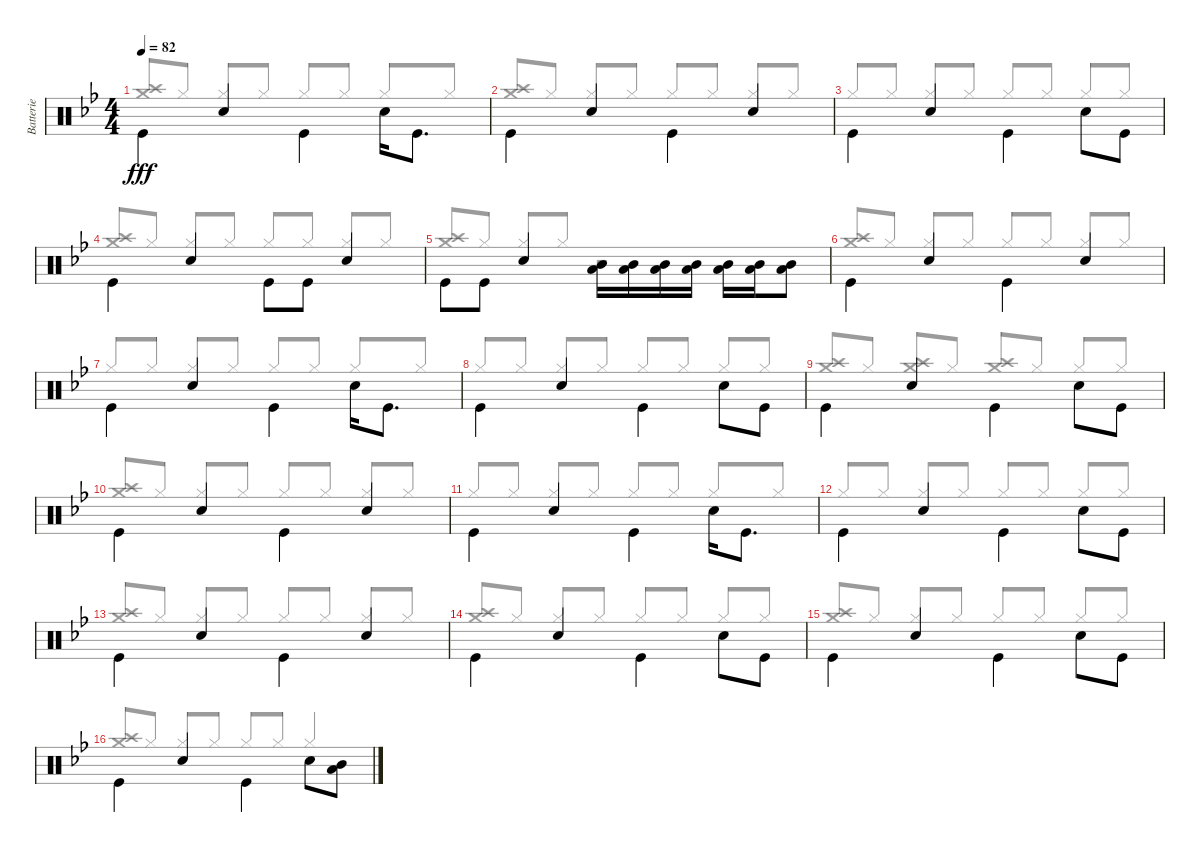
\track ("Batterie" "Batterie") {instrument percussion}
\staff {score}
\articulation defaults
\voice
\ts (4 4)
\tempo 82
\clef neutral
\ks bb "Kick (hit)".4{dy fff beam Down} "Snare (hit) 2".4 "Kick (hit)".4{beam Down} "Snare (hit) 2".16{beam Down} "Kick (hit)".8{d beam Down}
|
"Kick (hit)".4{beam Down} "Snare (hit) 2".4 "Kick (hit)".4{beam Down} "Snare (hit) 2".4 |
"Kick (hit)".4{beam Down} "Snare (hit) 2".4 "Kick (hit)".4{beam Down} "Snare (hit) 2".8{beam Down} "Kick (hit)".8{beam Down} |
"Kick (hit)".4{beam Down} "Snare (hit) 2".4 "Kick (hit)".8{beam Down} "Kick (hit)".8{beam Down} "Snare (hit) 2".4 |
"Kick (hit)".8{beam Down} "Kick (hit)".8{beam Down} "Snare (hit) 2".4 ("Mid Tom (hit)" "Low Tom (hit)").16{beam Down} ("Mid Tom (hit)" "Low Tom (hit)").16{beam Down} ("Mid Tom (hit)" "Low Tom (hit)").16{beam Down} ("Mid Tom (hit)" "Low Tom (hit)").16{beam Down} ("Mid Tom (hit)" "Low Tom (hit)").16{beam Down} ("Mid Tom (hit)" "Low Tom (hit)").16{beam Down} ("Mid Tom (hit)" "Low Tom (hit)").8{beam Down} |
"Kick (hit)".4{beam Down} "Snare (hit) 2".4 "Kick (hit)".4{beam Down} "Snare (hit) 2".4 |
"Kick (hit)".4{beam Down} "Snare (hit) 2".4 "Kick (hit)".4{beam Down} "Snare (hit) 2".16{beam Down} "Kick (hit)".8{d beam Down} |
"Kick (hit)".4{beam Down} "Snare (hit) 2".4 "Kick (hit)".4{beam Down} "Snare (hit) 2".8{beam Down} "Kick (hit)".8{beam Down} |
"Kick (hit)".4{beam Down} "Snare (hit) 2".4 "Kick (hit)".4{beam Down} "Snare (hit) 2".8{beam Down} "Kick (hit)".8{beam Down} |
"Kick (hit)".4{beam Down} "Snare (hit) 2".4 "Kick (hit)".4{beam Down} "Snare (hit) 2".4 |
"Kick (hit)".4{beam Down} "Snare (hit) 2".4 "Kick (hit)".4{beam Down} "Snare (hit) 2".16{beam Down} "Kick (hit)".8{d beam Down} |
"Kick (hit)".4{beam Down} "Snare (hit) 2".4 "Kick (hit)".4{beam Down} "Snare (hit) 2".8{beam Down} "Kick (hit)".8{beam Down} |
"Kick (hit)".4{beam Down} "Snare (hit) 2".4 "Kick (hit)".4{beam Down} "Snare (hit) 2".4 |
"Kick (hit)".4{beam Down} "Snare (hit) 2".4 "Kick (hit)".4{beam Down} "Snare (hit) 2".8{beam Down} "Kick (hit)".8{beam Down} |
"Kick (hit)".4{beam Down} "Snare (hit) 2".4 "Kick (hit)".4{beam Down} "Snare (hit) 2".8{beam Down} "Kick (hit)".8{beam Down} |
"Kick (hit)".4{beam Down} "Snare (hit) 2".4 "Kick (hit)".4{beam Down} "Snare (hit) 2".8{beam Down} ("Mid Tom (hit)" "Low Tom (hit)").8{beam Down}
\voice
\clef neutral
\ottava regular
\simile none
\ks bb
("Crash medium (hit)" "Crash high (hit)").8{dy fff beam Up} "Hi-Hat (closed)".8{beam Up} "Hi-Hat (closed)".8{beam Up} "Hi-Hat (closed)".8{beam Up} "Hi-Hat (closed)".8{beam Up} "Hi-Hat (closed)".8{beam Up} "Hi-Hat (closed)".8{beam Up} "Hi-Hat (closed)".8{beam Up} |
("Crash medium (hit)" "Crash high (hit)").8{beam Up} "Hi-Hat (closed)".8{beam Up} "Hi-Hat (closed)".8{beam Up} "Hi-Hat (closed)".8{beam Up} "Hi-Hat (closed)".8{beam Up} "Hi-Hat (closed)".8{beam Up} "Hi-Hat (closed)".8{beam Up} "Hi-Hat (closed)".8{beam Up} |
"Hi-Hat (closed)".8{beam Up} "Hi-Hat (closed)".8{beam Up} "Hi-Hat (closed)".8{beam Up} "Hi-Hat (closed)".8{beam Up} "Hi-Hat (closed)".8{beam Up} "Hi-Hat (closed)".8{beam Up} "Hi-Hat (closed)".8{beam Up} "Hi-Hat (closed)".8{beam Up} |
("Crash medium (hit)" "Crash high (hit)").8{beam Up} "Hi-Hat (closed)".8{beam Up} "Hi-Hat (closed)".8{beam Up} "Hi-Hat (closed)".8{beam Up} "Hi-Hat (closed)".8{beam Up} "Hi-Hat (closed)".8{beam Up} "Hi-Hat (closed)".8{beam Up} "Hi-Hat (closed)".8{beam Up} |
("Crash medium (hit)" "Crash high (hit)").8{beam Up} "Hi-Hat (closed)".8{beam Up} "Hi-Hat (closed)".8{beam Up} "Hi-Hat (closed)".8{beam Up} r.2 |
("Crash medium (hit)" "Crash high (hit)").8{beam Up} "Hi-Hat (closed)".8{beam Up} "Hi-Hat (closed)".8{beam Up} "Hi-Hat (closed)".8{beam Up} "Hi-Hat (closed)".8{beam Up} "Hi-Hat (closed)".8{beam Up} "Hi-Hat (closed)".8{beam Up} "Hi-Hat (closed)".8{beam Up} |
"Hi-Hat (closed)".8{beam Up} "Hi-Hat (closed)".8{beam Up} "Hi-Hat (closed)".8{beam Up} "Hi-Hat (closed)".8{beam Up} "Hi-Hat (closed)".8{beam Up} "Hi-Hat (closed)".8{beam Up} "Hi-Hat (closed)".8{beam Up} "Hi-Hat (closed)".8{beam Up} |
"Hi-Hat (closed)".8{beam Up} "Hi-Hat (closed)".8{beam Up} "Hi-Hat (closed)".8{beam Up} "Hi-Hat (closed)".8{beam Up} "Hi-Hat (closed)".8{beam Up} "Hi-Hat (closed)".8{beam Up} "Hi-Hat (closed)".8{beam Up} "Hi-Hat (closed)".8{beam Up} |
("Crash medium (hit)" "Crash high (hit)").8{beam Up} "Hi-Hat (closed)".8{beam Up} ("Crash medium (hit)" "Crash high (hit)").8{beam Up} "Hi-Hat (closed)".8{beam Up} ("Crash medium (hit)" "Crash high (hit)").8{beam Up} "Hi-Hat (closed)".8{beam Up} "Hi-Hat (closed)".8{beam Up} "Hi-Hat (closed)".8{beam Up} |
("Crash medium (hit)" "Crash high (hit)").8{beam Up} "Hi-Hat (closed)".8{beam Up} "Hi-Hat (closed)".8{beam Up} "Hi-Hat (closed)".8{beam Up} "Hi-Hat (closed)".8{beam Up} "Hi-Hat (closed)".8{beam Up} "Hi-Hat (closed)".8{beam Up} "Hi-Hat (closed)".8{beam Up} |
"Hi-Hat (closed)".8{beam Up} "Hi-Hat (closed)".8{beam Up} "Hi-Hat (closed)".8{beam Up} "Hi-Hat (closed)".8{beam Up} "Hi-Hat (closed)".8{beam Up} "Hi-Hat (closed)".8{beam Up} "Hi-Hat (closed)".8{beam Up} "Hi-Hat (closed)".8{beam Up} |
"Hi-Hat (closed)".8{beam Up} "Hi-Hat (closed)".8{beam Up} "Hi-Hat (closed)".8{beam Up} "Hi-Hat (closed)".8{beam Up} "Hi-Hat (closed)".8{beam Up} "Hi-Hat (closed)".8{beam Up} "Hi-Hat (closed)".8{beam Up} "Hi-Hat (closed)".8{beam Up} |
("Crash medium (hit)" "Crash high (hit)").8{beam Up} "Hi-Hat (closed)".8{beam Up} "Hi-Hat (closed)".8{beam Up} "Hi-Hat (closed)".8{beam Up} "Hi-Hat (closed)".8{beam Up} "Hi-Hat (closed)".8{beam Up} "Hi-Hat (closed)".8{beam Up} "Hi-Hat (closed)".8{beam Up} |
("Crash medium (hit)" "Crash high (hit)").8{beam Up} "Hi-Hat (closed)".8{beam Up} "Hi-Hat (closed)".8{beam Up} "Hi-Hat (closed)".8{beam Up} "Hi-Hat (closed)".8{beam Up} "Hi-Hat (closed)".8{beam Up} "Hi-Hat (closed)".8{beam Up} "Hi-Hat (closed)".8{beam Up} |
("Crash medium (hit)" "Crash high (hit)").8{beam Up} "Hi-Hat (closed)".8{beam Up} "Hi-Hat (closed)".8{beam Up} "Hi-Hat (closed)".8{beam Up} "Hi-Hat (closed)".8{beam Up} "Hi-Hat (closed)".8{beam Up} "Hi-Hat (closed)".8{beam Up} "Hi-Hat (closed)".8{beam Up} |
("Crash medium (hit)" "Crash high (hit)").8{beam Up} "Hi-Hat (closed)".8{beam Up} "Hi-Hat (closed)".8{beam Up} "Hi-Hat (closed)".8{beam Up} "Hi-Hat (closed)".8{beam Up} "Hi-Hat (closed)".8{beam Up} "Hi-Hat (closed)".4{beam Up}
